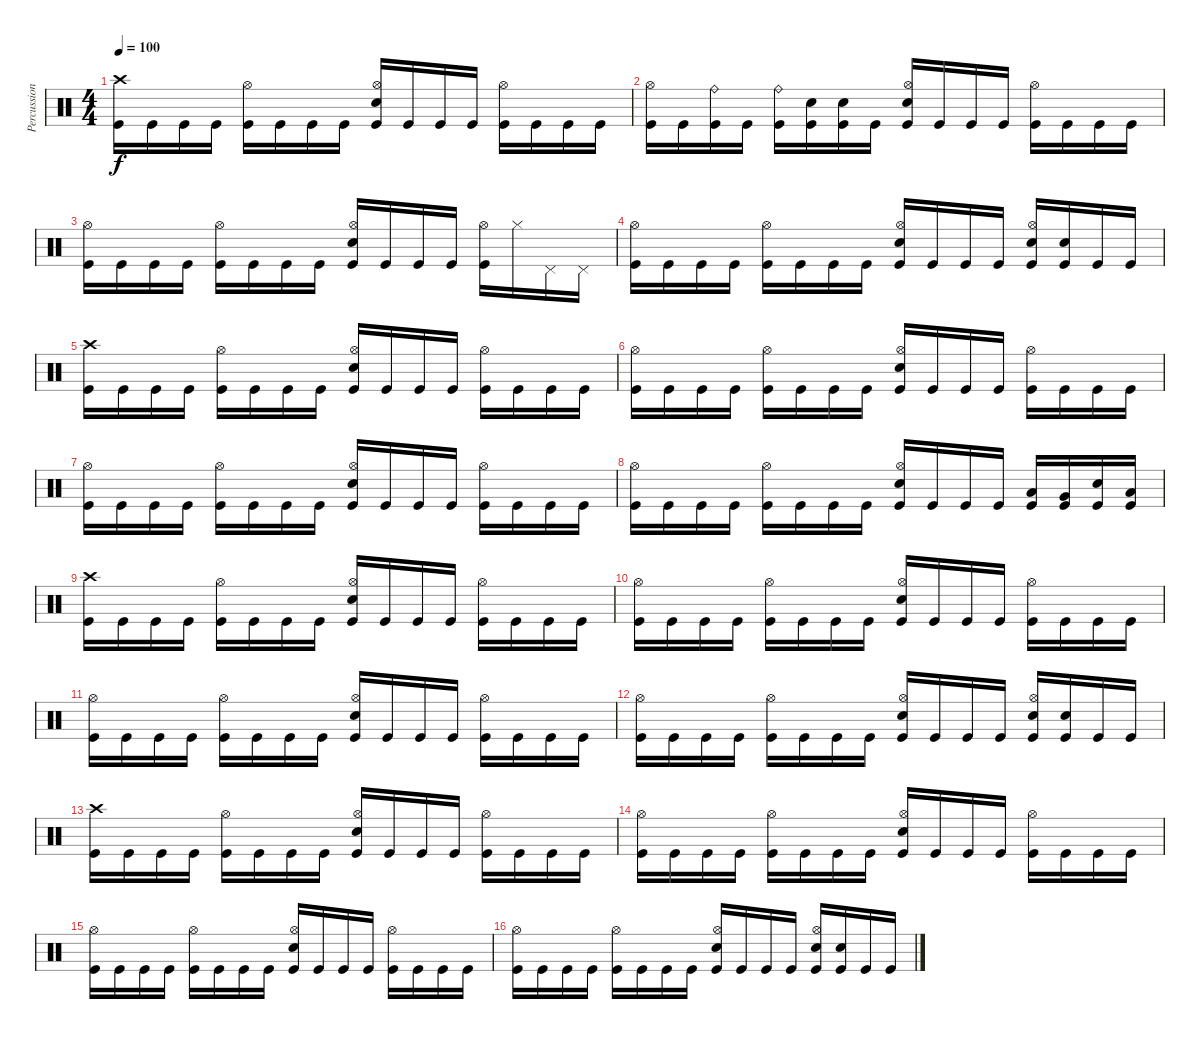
\track ("Percussion" "Percussion") {instrument percussion}
\staff {score}
\articulation defaults
\ts (4 4)
\tempo 100
\clef neutral
\ks c
("Crash high (hit)" "Kick (hit)").16{dy f} "Kick (hit)".16 "Kick (hit)".16 "Kick (hit)".16 ("Hi-Hat (open)" "Kick (hit)").16 "Kick (hit)".16 "Kick (hit)".16 "Kick (hit)".16 ("Hi-Hat (open)" "Snare (hit) 2" "Kick (hit)").16 "Kick (hit)".16 "Kick (hit)".16 "Kick (hit)".16 ("Hi-Hat (open)" "Kick (hit)").16 "Kick (hit)".16 "Kick (hit)".16 "Kick (hit)".16 |
("Hi-Hat (open)" "Kick (hit)").16 "Kick (hit)".16 ("Ride (bell)" "Kick (hit)").16 "Kick (hit)".16 ("Ride (bell)" "Kick (hit)").16 ("Snare (hit) 2" "Kick (hit)").16 ("Snare (hit) 2" "Kick (hit)").16 "Kick (hit)".16 ("Hi-Hat (open)" "Snare (hit) 2" "Kick (hit)").16 "Kick (hit)".16 "Kick (hit)".16 "Kick (hit)".16 ("Hi-Hat (open)" "Kick (hit)").16 "Kick (hit)".16 "Kick (hit)".16 "Kick (hit)".16 |
("Hi-Hat (open)" "Kick (hit)").16 "Kick (hit)".16 "Kick (hit)".16 "Kick (hit)".16 ("Hi-Hat (open)" "Kick (hit)").16 "Kick (hit)".16 "Kick (hit)".16 "Kick (hit)".16 ("Hi-Hat (open)" "Snare (hit) 2" "Kick (hit)").16 "Kick (hit)".16 "Kick (hit)".16 "Kick (hit)".16 ("Hi-Hat (open)" "Kick (hit)").16 "Hi-Hat (closed)".16 "Pedal Hi-Hat (hit)".16 "Pedal Hi-Hat (hit)".16 |
("Hi-Hat (open)" "Kick (hit)").16 "Kick (hit)".16 "Kick (hit)".16 "Kick (hit)".16 ("Hi-Hat (open)" "Kick (hit)").16 "Kick (hit)".16 "Kick (hit)".16 "Kick (hit)".16 ("Hi-Hat (open)" "Snare (hit) 2" "Kick (hit)").16 "Kick (hit)".16 "Kick (hit)".16 "Kick (hit)".16 ("Hi-Hat (open)" "Snare (hit) 2" "Kick (hit)").16 ("Snare (hit) 2" "Kick (hit)").16 "Kick (hit)".16 "Kick (hit)".16 |
("Crash high (hit)" "Kick (hit)").16 "Kick (hit)".16 "Kick (hit)".16 "Kick (hit)".16 ("Hi-Hat (open)" "Kick (hit)").16 "Kick (hit)".16 "Kick (hit)".16 "Kick (hit)".16 ("Hi-Hat (open)" "Snare (hit) 2" "Kick (hit)").16 "Kick (hit)".16 "Kick (hit)".16 "Kick (hit)".16 ("Hi-Hat (open)" "Kick (hit)").16 "Kick (hit)".16 "Kick (hit)".16 "Kick (hit)".16 |
("Hi-Hat (open)" "Kick (hit)").16 "Kick (hit)".16 "Kick (hit)".16 "Kick (hit)".16 ("Hi-Hat (open)" "Kick (hit)").16 "Kick (hit)".16 "Kick (hit)".16 "Kick (hit)".16 ("Hi-Hat (open)" "Snare (hit) 2" "Kick (hit)").16 "Kick (hit)".16 "Kick (hit)".16 "Kick (hit)".16 ("Hi-Hat (open)" "Kick (hit)").16 "Kick (hit)".16 "Kick (hit)".16 "Kick (hit)".16 |
("Hi-Hat (open)" "Kick (hit)").16 "Kick (hit)".16 "Kick (hit)".16 "Kick (hit)".16 ("Hi-Hat (open)" "Kick (hit)").16 "Kick (hit)".16 "Kick (hit)".16 "Kick (hit)".16 ("Hi-Hat (open)" "Snare (hit) 2" "Kick (hit)").16 "Kick (hit)".16 "Kick (hit)".16 "Kick (hit)".16 ("Hi-Hat (open)" "Kick (hit)").16 "Kick (hit)".16 "Kick (hit)".16 "Kick (hit)".16 |
("Hi-Hat (open)" "Kick (hit)").16 "Kick (hit)".16 "Kick (hit)".16 "Kick (hit)".16 ("Hi-Hat (open)" "Kick (hit)").16 "Kick (hit)".16 "Kick (hit)".16 "Kick (hit)".16 ("Hi-Hat (open)" "Snare (hit) 2" "Kick (hit)").16 "Kick (hit)".16 "Kick (hit)".16 "Kick (hit)".16 ("Low Tom (hit)" "Kick (hit)").16 ("Very Low Tom (hit)" "Kick (hit)").16 ("Electric Snare (hit)" "Kick (hit)").16 ("Low Tom (hit)" "Kick (hit)").16 |
("Crash high (hit)" "Kick (hit)").16 "Kick (hit)".16 "Kick (hit)".16 "Kick (hit)".16 ("Hi-Hat (open)" "Kick (hit)").16 "Kick (hit)".16 "Kick (hit)".16 "Kick (hit)".16 ("Hi-Hat (open)" "Snare (hit) 2" "Kick (hit)").16 "Kick (hit)".16 "Kick (hit)".16 "Kick (hit)".16 ("Hi-Hat (open)" "Kick (hit)").16 "Kick (hit)".16 "Kick (hit)".16 "Kick (hit)".16 |
("Hi-Hat (open)" "Kick (hit)").16 "Kick (hit)".16 "Kick (hit)".16 "Kick (hit)".16 ("Hi-Hat (open)" "Kick (hit)").16 "Kick (hit)".16 "Kick (hit)".16 "Kick (hit)".16 ("Hi-Hat (open)" "Snare (hit) 2" "Kick (hit)").16 "Kick (hit)".16 "Kick (hit)".16 "Kick (hit)".16 ("Hi-Hat (open)" "Kick (hit)").16 "Kick (hit)".16 "Kick (hit)".16 "Kick (hit)".16 |
("Hi-Hat (open)" "Kick (hit)").16 "Kick (hit)".16 "Kick (hit)".16 "Kick (hit)".16 ("Hi-Hat (open)" "Kick (hit)").16 "Kick (hit)".16 "Kick (hit)".16 "Kick (hit)".16 ("Hi-Hat (open)" "Snare (hit) 2" "Kick (hit)").16 "Kick (hit)".16 "Kick (hit)".16 "Kick (hit)".16 ("Hi-Hat (open)" "Kick (hit)").16 "Kick (hit)".16 "Kick (hit)".16 "Kick (hit)".16 |
("Hi-Hat (open)" "Kick (hit)").16 "Kick (hit)".16 "Kick (hit)".16 "Kick (hit)".16 ("Hi-Hat (open)" "Kick (hit)").16 "Kick (hit)".16 "Kick (hit)".16 "Kick (hit)".16 ("Hi-Hat (open)" "Snare (hit) 2" "Kick (hit)").16 "Kick (hit)".16 "Kick (hit)".16 "Kick (hit)".16 ("Hi-Hat (open)" "Snare (hit) 2" "Kick (hit)").16 ("Snare (hit) 2" "Kick (hit)").16 "Kick (hit)".16 "Kick (hit)".16 |
("Crash high (hit)" "Kick (hit)").16 "Kick (hit)".16 "Kick (hit)".16 "Kick (hit)".16 ("Hi-Hat (open)" "Kick (hit)").16 "Kick (hit)".16 "Kick (hit)".16 "Kick (hit)".16 ("Hi-Hat (open)" "Snare (hit) 2" "Kick (hit)").16 "Kick (hit)".16 "Kick (hit)".16 "Kick (hit)".16 ("Hi-Hat (open)" "Kick (hit)").16 "Kick (hit)".16 "Kick (hit)".16 "Kick (hit)".16 |
("Hi-Hat (open)" "Kick (hit)").16 "Kick (hit)".16 "Kick (hit)".16 "Kick (hit)".16 ("Hi-Hat (open)" "Kick (hit)").16 "Kick (hit)".16 "Kick (hit)".16 "Kick (hit)".16 ("Hi-Hat (open)" "Snare (hit) 2" "Kick (hit)").16 "Kick (hit)".16 "Kick (hit)".16 "Kick (hit)".16 ("Hi-Hat (open)" "Kick (hit)").16 "Kick (hit)".16 "Kick (hit)".16 "Kick (hit)".16 |
("Hi-Hat (open)" "Kick (hit)").16 "Kick (hit)".16 "Kick (hit)".16 "Kick (hit)".16 ("Hi-Hat (open)" "Kick (hit)").16 "Kick (hit)".16 "Kick (hit)".16 "Kick (hit)".16 ("Hi-Hat (open)" "Snare (hit) 2" "Kick (hit)").16 "Kick (hit)".16 "Kick (hit)".16 "Kick (hit)".16 ("Hi-Hat (open)" "Kick (hit)").16 "Kick (hit)".16 "Kick (hit)".16 "Kick (hit)".16 |
("Hi-Hat (open)" "Kick (hit)").16 "Kick (hit)".16 "Kick (hit)".16 "Kick (hit)".16 ("Hi-Hat (open)" "Kick (hit)").16 "Kick (hit)".16 "Kick (hit)".16 "Kick (hit)".16 ("Hi-Hat (open)" "Snare (hit) 2" "Kick (hit)").16 "Kick (hit)".16 "Kick (hit)".16 "Kick (hit)".16 ("Hi-Hat (open)" "Snare (hit) 2" "Kick (hit)").16 ("Snare (hit) 2" "Kick (hit)").16 "Kick (hit)".16 "Kick (hit)".16
